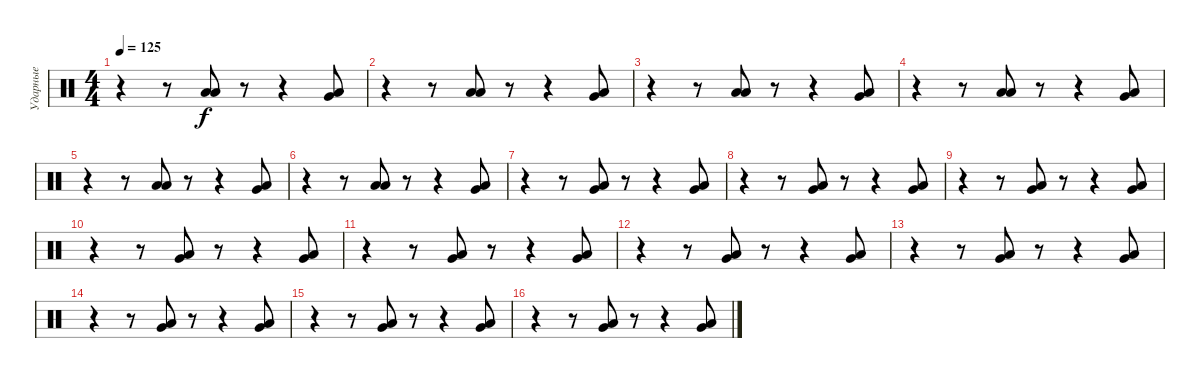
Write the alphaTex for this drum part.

\track ("Ударные" "Ударные") {instrument percussion}
\staff {score}
\articulation defaults
\ts (4 4)
\tempo 125
\clef neutral
\ks c
r.4{dy f} r.8 ("Low Floor Tom (hit)" "Low Floor Tom (hit)").8 r.8 r.4 ("Very Low Tom (hit)" "Low Floor Tom (hit)").8 |
r.4 r.8 ("Low Floor Tom (hit)" "Low Floor Tom (hit)").8 r.8 r.4 ("Very Low Tom (hit)" "Low Floor Tom (hit)").8 |
r.4 r.8 ("Low Floor Tom (hit)" "Low Floor Tom (hit)").8 r.8 r.4 ("Very Low Tom (hit)" "Low Floor Tom (hit)").8 |
r.4 r.8 ("Low Floor Tom (hit)" "Low Floor Tom (hit)").8 r.8 r.4 ("Very Low Tom (hit)" "Low Floor Tom (hit)").8 |
r.4 r.8 ("Low Floor Tom (hit)" "Low Floor Tom (hit)").8 r.8 r.4 ("Very Low Tom (hit)" "Low Floor Tom (hit)").8 |
r.4 r.8 ("Low Floor Tom (hit)" "Low Floor Tom (hit)").8 r.8 r.4 ("Very Low Tom (hit)" "Low Floor Tom (hit)").8 |
r.4 r.8 ("Low Floor Tom (hit)" "Very Low Tom (hit)").8 r.8 r.4 ("Very Low Tom (hit)" "Low Floor Tom (hit)").8 |
r.4 r.8 ("Low Floor Tom (hit)" "Very Low Tom (hit)").8 r.8 r.4 ("Very Low Tom (hit)" "Low Floor Tom (hit)").8 |
r.4 r.8 ("Low Floor Tom (hit)" "Very Low Tom (hit)").8 r.8 r.4 ("Very Low Tom (hit)" "Low Floor Tom (hit)").8 |
r.4 r.8 ("Low Floor Tom (hit)" "Very Low Tom (hit)").8 r.8 r.4 ("Very Low Tom (hit)" "Low Floor Tom (hit)").8 |
r.4 r.8 ("Low Floor Tom (hit)" "Very Low Tom (hit)").8 r.8 r.4 ("Very Low Tom (hit)" "Low Floor Tom (hit)").8 |
r.4 r.8 ("Low Floor Tom (hit)" "Very Low Tom (hit)").8 r.8 r.4 ("Very Low Tom (hit)" "Low Floor Tom (hit)").8 |
r.4 r.8 ("Low Floor Tom (hit)" "Very Low Tom (hit)").8 r.8 r.4 ("Very Low Tom (hit)" "Low Floor Tom (hit)").8 |
r.4 r.8 ("Low Floor Tom (hit)" "Very Low Tom (hit)").8 r.8 r.4 ("Very Low Tom (hit)" "Low Floor Tom (hit)").8 |
r.4 r.8 ("Low Floor Tom (hit)" "Very Low Tom (hit)").8 r.8 r.4 ("Very Low Tom (hit)" "Low Floor Tom (hit)").8 |
r.4 r.8 ("Low Floor Tom (hit)" "Very Low Tom (hit)").8 r.8 r.4 ("Very Low Tom (hit)" "Low Floor Tom (hit)").8
